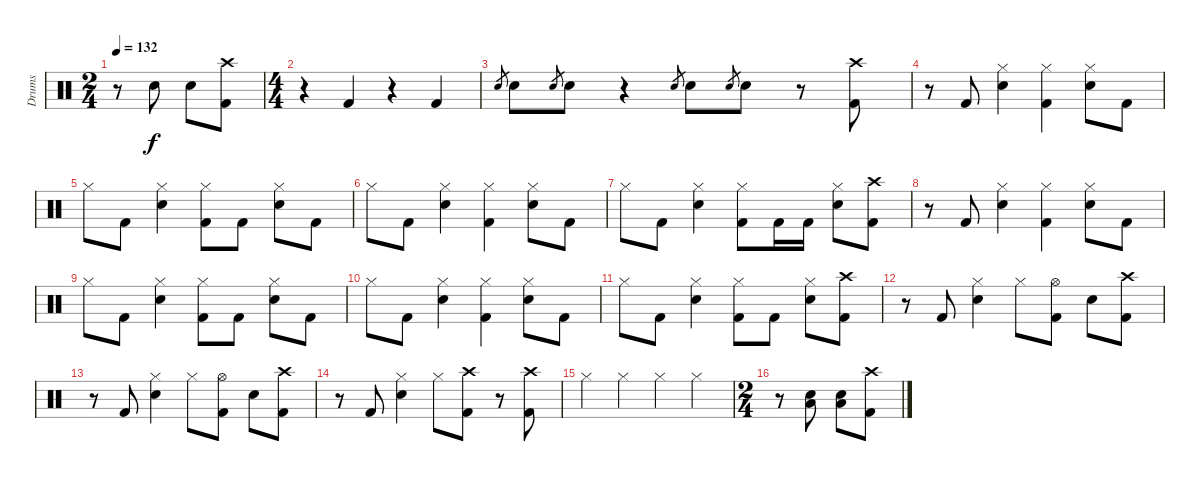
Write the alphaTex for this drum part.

\track ("Drums" "Drums") {instrument percussion}
\staff {score}
\articulation defaults
\ts (2 4)
\tempo 132
\clef neutral
\ks c
r.8{dy f} "Electric Snare (hit)".8 "Electric Snare (hit)".8 ("Crash high (hit)" "Kick (hit) 2").8 |
\ts (4 4)
r.4 "Kick (hit) 2".4 r.4 "Kick (hit) 2".4 |
"Electric Snare (hit)".8{gr} "Electric Snare (hit)".8 "Electric Snare (hit)".8{gr} "Electric Snare (hit)".8 r.4 "Electric Snare (hit)".8{gr} "Electric Snare (hit)".8 "Electric Snare (hit)".8{gr} "Electric Snare (hit)".8 r.8 ("Crash high (hit)" "Kick (hit) 2").8 |
r.8 "Kick (hit) 2".8 ("Hi-Hat (closed)" "Electric Snare (hit)").4 ("Hi-Hat (closed)" "Kick (hit) 2").4 ("Hi-Hat (closed)" "Electric Snare (hit)").8 "Kick (hit) 2".8 |
"Hi-Hat (closed)".8 "Kick (hit) 2".8 ("Hi-Hat (closed)" "Electric Snare (hit)").4 ("Hi-Hat (closed)" "Kick (hit) 2").8 "Kick (hit) 2".8 ("Hi-Hat (closed)" "Electric Snare (hit)").8 "Kick (hit) 2".8 |
"Hi-Hat (closed)".8 "Kick (hit) 2".8 ("Hi-Hat (closed)" "Electric Snare (hit)").4 ("Hi-Hat (closed)" "Kick (hit) 2").4 ("Hi-Hat (closed)" "Electric Snare (hit)").8 "Kick (hit) 2".8 |
"Hi-Hat (closed)".8 "Kick (hit) 2".8 ("Hi-Hat (closed)" "Electric Snare (hit)").4 ("Hi-Hat (closed)" "Kick (hit) 2").8 "Kick (hit) 2".16 "Kick (hit) 2".16 ("Hi-Hat (closed)" "Electric Snare (hit)").8 ("Crash high (hit)" "Kick (hit) 2").8 |
r.8 "Kick (hit) 2".8 ("Hi-Hat (closed)" "Electric Snare (hit)").4 ("Hi-Hat (closed)" "Kick (hit) 2").4 ("Hi-Hat (closed)" "Electric Snare (hit)").8 "Kick (hit) 2".8 |
"Hi-Hat (closed)".8 "Kick (hit) 2".8 ("Hi-Hat (closed)" "Electric Snare (hit)").4 ("Hi-Hat (closed)" "Kick (hit) 2").8 "Kick (hit) 2".8 ("Hi-Hat (closed)" "Electric Snare (hit)").8 "Kick (hit) 2".8 |
"Hi-Hat (closed)".8 "Kick (hit) 2".8 ("Hi-Hat (closed)" "Electric Snare (hit)").4 ("Hi-Hat (closed)" "Kick (hit) 2").4 ("Hi-Hat (closed)" "Electric Snare (hit)").8 "Kick (hit) 2".8 |
"Hi-Hat (closed)".8 "Kick (hit) 2".8 ("Hi-Hat (closed)" "Electric Snare (hit)").4 ("Hi-Hat (closed)" "Kick (hit) 2").8 "Kick (hit) 2".8 ("Hi-Hat (closed)" "Electric Snare (hit)").8 ("Crash high (hit)" "Kick (hit) 2").8 |
r.8 "Kick (hit) 2".8 ("Hi-Hat (closed)" "Electric Snare (hit)").4 "Hi-Hat (closed)".8 ("Hi-Hat (open)" "Kick (hit) 2").8 "Electric Snare (hit)".8 ("Crash high (hit)" "Kick (hit) 2").8 |
r.8 "Kick (hit) 2".8 ("Hi-Hat (closed)" "Electric Snare (hit)").4 "Hi-Hat (closed)".8 ("Hi-Hat (open)" "Kick (hit) 2").8 "Electric Snare (hit)".8 ("Crash high (hit)" "Kick (hit) 2").8 |
r.8 "Kick (hit) 2".8 ("Hi-Hat (closed)" "Electric Snare (hit)").4 "Hi-Hat (closed)".8 ("Crash high (hit)" "Kick (hit) 2").8 r.8 ("Crash high (hit)" "Kick (hit) 2").8 |
"Hi-Hat (closed)".4 "Hi-Hat (closed)".4 "Hi-Hat (closed)".4 "Hi-Hat (closed)".4 |
\ts (2 4)
r.8 ("Electric Snare (hit)" "Low Tom (hit)").8 ("Electric Snare (hit)" "Low Tom (hit)").8 ("Crash high (hit)" "Kick (hit) 2").8
